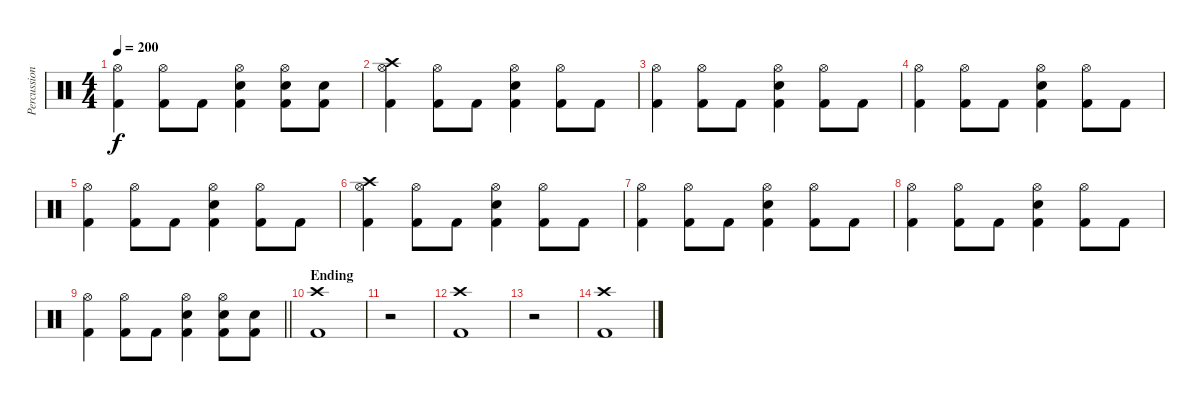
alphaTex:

\track ("Percussion" "Percussion") {instrument percussion}
\staff {score}
\articulation defaults
\ts (4 4)
\tempo 200
\clef neutral
\ks c
("Hi-Hat (open)" "Kick (hit) 2").4{dy f} ("Hi-Hat (open)" "Kick (hit) 2").8 "Kick (hit) 2".8 ("Hi-Hat (open)" "Snare (hit) 2" "Kick (hit) 2").4 ("Hi-Hat (open)" "Snare (hit) 2" "Kick (hit) 2").8 ("Snare (hit) 2" "Kick (hit) 2").8 |
("Crash high (hit)" "Hi-Hat (open)" "Kick (hit) 2").4 ("Hi-Hat (open)" "Kick (hit) 2").8 "Kick (hit) 2".8 ("Hi-Hat (open)" "Snare (hit) 2" "Kick (hit) 2").4 ("Hi-Hat (open)" "Kick (hit) 2").8 "Kick (hit) 2".8 |
("Hi-Hat (open)" "Kick (hit) 2").4 ("Hi-Hat (open)" "Kick (hit) 2").8 "Kick (hit) 2".8 ("Hi-Hat (open)" "Snare (hit) 2" "Kick (hit) 2").4 ("Hi-Hat (open)" "Kick (hit) 2").8 "Kick (hit) 2".8 |
("Hi-Hat (open)" "Kick (hit) 2").4 ("Hi-Hat (open)" "Kick (hit) 2").8 "Kick (hit) 2".8 ("Hi-Hat (open)" "Snare (hit) 2" "Kick (hit) 2").4 ("Hi-Hat (open)" "Kick (hit) 2").8 "Kick (hit) 2".8 |
("Hi-Hat (open)" "Kick (hit) 2").4 ("Hi-Hat (open)" "Kick (hit) 2").8 "Kick (hit) 2".8 ("Hi-Hat (open)" "Snare (hit) 2" "Kick (hit) 2").4 ("Hi-Hat (open)" "Kick (hit) 2").8 "Kick (hit) 2".8 |
("Crash high (hit)" "Hi-Hat (open)" "Kick (hit) 2").4 ("Hi-Hat (open)" "Kick (hit) 2").8 "Kick (hit) 2".8 ("Hi-Hat (open)" "Snare (hit) 2" "Kick (hit) 2").4 ("Hi-Hat (open)" "Kick (hit) 2").8 "Kick (hit) 2".8 |
("Hi-Hat (open)" "Kick (hit) 2").4 ("Hi-Hat (open)" "Kick (hit) 2").8 "Kick (hit) 2".8 ("Hi-Hat (open)" "Snare (hit) 2" "Kick (hit) 2").4 ("Hi-Hat (open)" "Kick (hit) 2").8 "Kick (hit) 2".8 |
("Hi-Hat (open)" "Kick (hit) 2").4 ("Hi-Hat (open)" "Kick (hit) 2").8 "Kick (hit) 2".8 ("Hi-Hat (open)" "Snare (hit) 2" "Kick (hit) 2").4 ("Hi-Hat (open)" "Kick (hit) 2").8 "Kick (hit) 2".8 |
\barLineRight lightlight
("Hi-Hat (open)" "Kick (hit) 2").4 ("Hi-Hat (open)" "Kick (hit) 2").8 "Kick (hit) 2".8 ("Hi-Hat (open)" "Snare (hit) 2" "Kick (hit) 2").4 ("Hi-Hat (open)" "Snare (hit) 2" "Kick (hit) 2").8 ("Snare (hit) 2" "Kick (hit) 2").8 |
\section ("" "Ending")
("Crash high (hit)" "Kick (hit) 2").1 |
r.2 |
("Crash high (hit)" "Kick (hit) 2").1 |
r.2 |
("Crash high (hit)" "Kick (hit) 2").1
